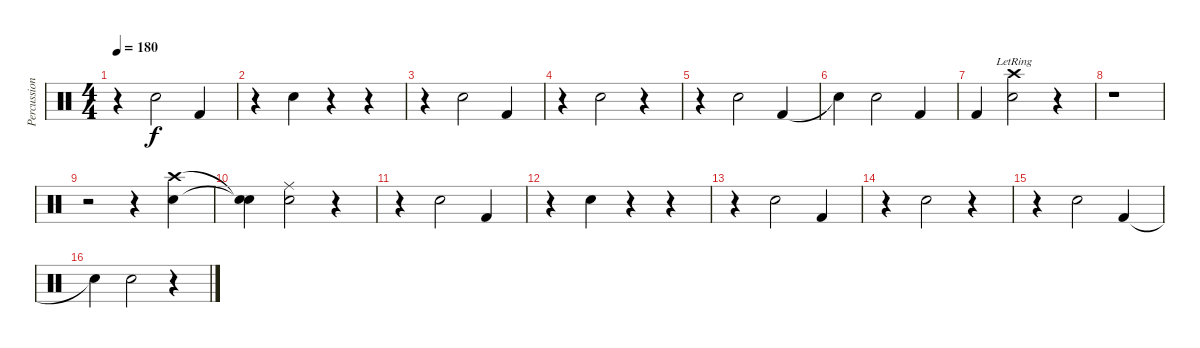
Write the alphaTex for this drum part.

\track ("Percussion" "Percussion") {instrument percussion}
\staff {score}
\articulation defaults
\ts (4 4)
\tempo 180
\clef neutral
\ks c
r.4{dy f} "Electric Snare (hit)".2 "Kick (hit) 2".4 |
r.4 "Electric Snare (hit)".4 r.4 r.4 |
r.4 "Electric Snare (hit)".2 "Kick (hit) 2".4 |
r.4 "Electric Snare (hit)".2 r.4 |
r.4 "Electric Snare (hit)".2 "Kick (hit) 2".4 |
"Snare (hit)"{t}.4 "Electric Snare (hit)".2 "Kick (hit) 2".4 |
"Kick (hit) 2".4 ("Electric Snare (hit)" "Crash high (hit)"{lr}).2 r.4 |
r.1 |
r.2 r.4 ("Crash high (hit)" "Electric Snare (hit)").4 |
("Snare (hit)"{t} "Snare (hit)"{t}).4 ("Electric Snare (hit)" "Ride (middle)").2 r.4 |
r.4 "Electric Snare (hit)".2 "Kick (hit) 2".4 |
r.4 "Electric Snare (hit)".4 r.4 r.4 |
r.4 "Electric Snare (hit)".2 "Kick (hit) 2".4 |
r.4 "Electric Snare (hit)".2 r.4 |
r.4 "Electric Snare (hit)".2 "Kick (hit) 2".4 |
"Snare (hit)"{t}.4 "Electric Snare (hit)".2 r.4
